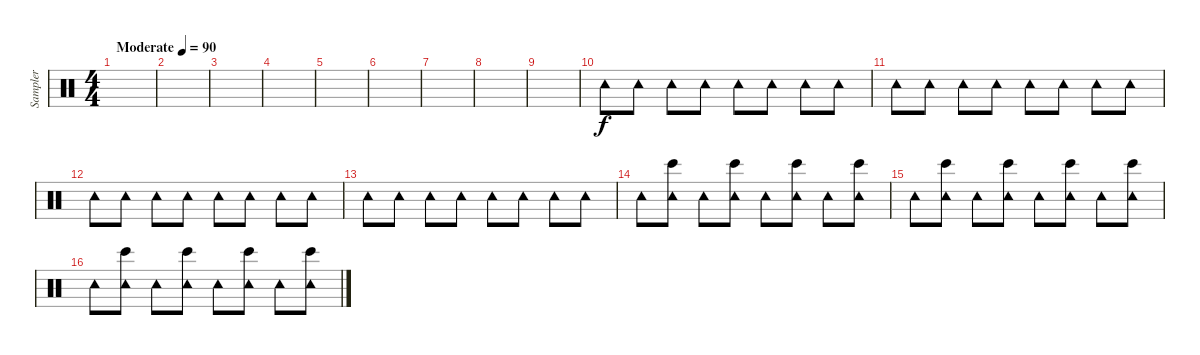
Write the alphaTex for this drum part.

\track ("Sampler" "Sampler") {instrument percussion}
\staff {score}
\articulation defaults
\ts (4 4)
\tempo (90 "Moderate")
\clef neutral
\ks c
|
|
|
|
|
|
|
|
|
"Tambourine (hit)".8 "Tambourine (hit)".8 "Tambourine (hit)".8 "Tambourine (hit)".8 "Tambourine (hit)".8 "Tambourine (hit)".8 "Tambourine (hit)".8 "Tambourine (hit)".8 |
"Tambourine (hit)".8 "Tambourine (hit)".8 "Tambourine (hit)".8 "Tambourine (hit)".8 "Tambourine (hit)".8 "Tambourine (hit)".8 "Tambourine (hit)".8 "Tambourine (hit)".8 |
"Tambourine (hit)".8 "Tambourine (hit)".8 "Tambourine (hit)".8 "Tambourine (hit)".8 "Tambourine (hit)".8 "Tambourine (hit)".8 "Tambourine (hit)".8 "Tambourine (hit)".8 |
"Tambourine (hit)".8 "Tambourine (hit)".8 "Tambourine (hit)".8 "Tambourine (hit)".8 "Tambourine (hit)".8 "Tambourine (hit)".8 "Tambourine (hit)".8 "Tambourine (hit)".8 |
"Tambourine (hit)".8 ("Tambourine (hit)" "Bongo High (hit)").8 "Tambourine (hit)".8 ("Tambourine (hit)" "Bongo High (hit)").8 "Tambourine (hit)".8 ("Tambourine (hit)" "Bongo High (hit)").8 "Tambourine (hit)".8 ("Tambourine (hit)" "Bongo High (hit)").8 |
"Tambourine (hit)".8 ("Tambourine (hit)" "Bongo High (hit)").8 "Tambourine (hit)".8 ("Tambourine (hit)" "Bongo High (hit)").8 "Tambourine (hit)".8 ("Tambourine (hit)" "Bongo High (hit)").8 "Tambourine (hit)".8 ("Tambourine (hit)" "Bongo High (hit)").8 |
"Tambourine (hit)".8 ("Tambourine (hit)" "Bongo High (hit)").8 "Tambourine (hit)".8 ("Tambourine (hit)" "Bongo High (hit)").8 "Tambourine (hit)".8 ("Tambourine (hit)" "Bongo High (hit)").8 "Tambourine (hit)".8 ("Tambourine (hit)" "Bongo High (hit)").8
